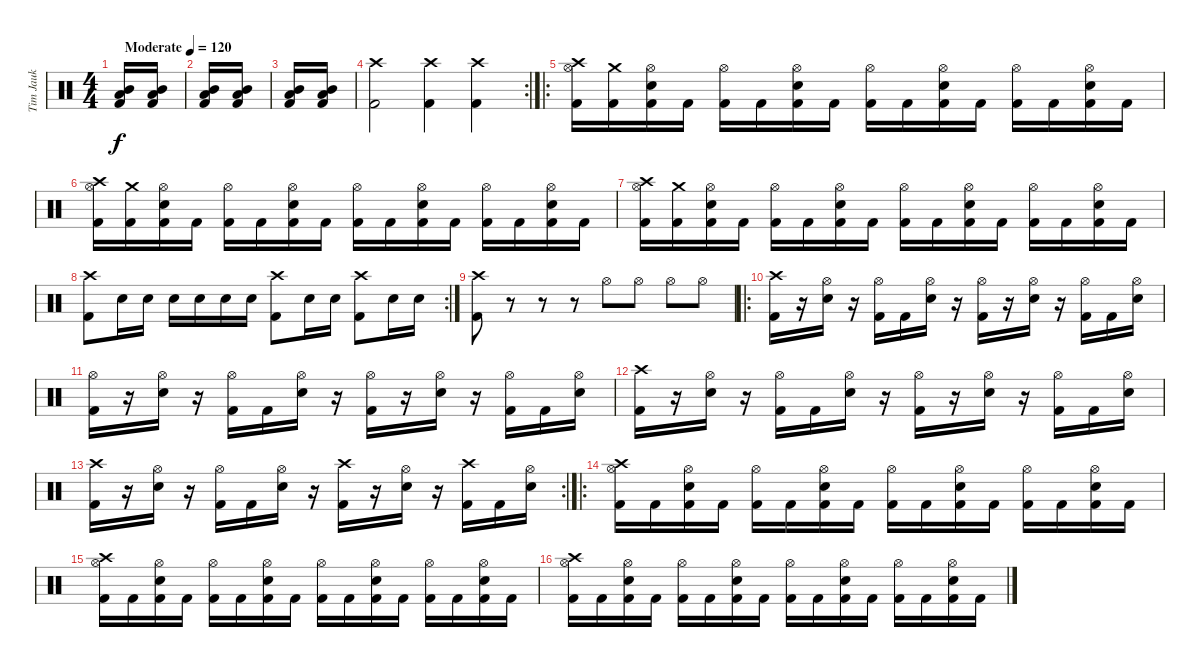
\track ("Tim Jauk" "Tim Jauk") {instrument percussion}
\staff {score}
\articulation defaults
\ts (4 4)
\tempo (120 "Moderate")
\clef neutral
\ks c
("Low Tom (hit)" "Mid Tom (hit)" "Kick (hit) 2").16{dy f} ("Low Tom (hit)" "Mid Tom (hit)" "Kick (hit) 2").16 |
("Low Tom (hit)" "Mid Tom (hit)" "Kick (hit) 2").16 ("Low Tom (hit)" "Mid Tom (hit)" "Kick (hit) 2").16 |
("Low Tom (hit)" "Mid Tom (hit)" "Kick (hit) 2").16 ("Low Tom (hit)" "Mid Tom (hit)" "Kick (hit) 2").16 |
\rc 2
("Crash high (hit)" "Kick (hit) 2").2 ("Crash high (hit)" "Kick (hit) 2").4 ("Crash high (hit)" "Kick (hit) 2").4 |
\ro
("Crash high (hit)" "Hi-Hat (open)" "Kick (hit) 2").16 ("Crash medium (hit)" "Kick (hit) 2").16 ("Hi-Hat (open)" "Snare (hit) 2" "Kick (hit) 2").16 "Kick (hit) 2".16 ("Hi-Hat (open)" "Kick (hit) 2").16 "Kick (hit) 2".16 ("Hi-Hat (open)" "Snare (hit) 2" "Kick (hit) 2").16 "Kick (hit) 2".16 ("Hi-Hat (open)" "Kick (hit) 2").16 "Kick (hit) 2".16 ("Hi-Hat (open)" "Snare (hit) 2" "Kick (hit) 2").16 "Kick (hit) 2".16 ("Hi-Hat (open)" "Kick (hit) 2").16 "Kick (hit) 2".16 ("Hi-Hat (open)" "Snare (hit) 2" "Kick (hit) 2").16 "Kick (hit) 2".16 |
("Crash high (hit)" "Hi-Hat (open)" "Kick (hit) 2").16 ("Crash medium (hit)" "Kick (hit) 2").16 ("Hi-Hat (open)" "Snare (hit) 2" "Kick (hit) 2").16 "Kick (hit) 2".16 ("Hi-Hat (open)" "Kick (hit) 2").16 "Kick (hit) 2".16 ("Hi-Hat (open)" "Snare (hit) 2" "Kick (hit) 2").16 "Kick (hit) 2".16 ("Hi-Hat (open)" "Kick (hit) 2").16 "Kick (hit) 2".16 ("Hi-Hat (open)" "Snare (hit) 2" "Kick (hit) 2").16 "Kick (hit) 2".16 ("Hi-Hat (open)" "Kick (hit) 2").16 "Kick (hit) 2".16 ("Hi-Hat (open)" "Snare (hit) 2" "Kick (hit) 2").16 "Kick (hit) 2".16 |
("Crash high (hit)" "Hi-Hat (open)" "Kick (hit) 2").16 ("Crash medium (hit)" "Kick (hit) 2").16 ("Hi-Hat (open)" "Snare (hit) 2" "Kick (hit) 2").16 "Kick (hit) 2".16 ("Hi-Hat (open)" "Kick (hit) 2").16 "Kick (hit) 2".16 ("Hi-Hat (open)" "Snare (hit) 2" "Kick (hit) 2").16 "Kick (hit) 2".16 ("Hi-Hat (open)" "Kick (hit) 2").16 "Kick (hit) 2".16 ("Hi-Hat (open)" "Snare (hit) 2" "Kick (hit) 2").16 "Kick (hit) 2".16 ("Hi-Hat (open)" "Kick (hit) 2").16 "Kick (hit) 2".16 ("Hi-Hat (open)" "Snare (hit) 2" "Kick (hit) 2").16 "Kick (hit) 2".16 |
\rc 2
("Crash high (hit)" "Kick (hit) 2").8 "Snare (hit) 2".16 "Snare (hit) 2".16 "Snare (hit) 2".16 "Snare (hit) 2".16 "Snare (hit) 2".16 "Snare (hit) 2".16 ("Crash high (hit)" "Kick (hit) 2").8 "Snare (hit) 2".16 "Snare (hit) 2".16 ("Crash high (hit)" "Kick (hit) 2").8 "Snare (hit) 2".16 "Snare (hit) 2".16 |
("Crash high (hit)" "Kick (hit) 2").8 r.8 r.8 r.8 "Hi-Hat (open)".8 "Hi-Hat (open)".8 "Hi-Hat (open)".8 "Hi-Hat (open)".8 |
\ro
("Crash high (hit)" "Kick (hit) 2").16 r.16 ("Hi-Hat (open)" "Snare (hit) 2").16 r.16 ("Hi-Hat (open)" "Kick (hit) 2").16 "Kick (hit) 2".16 ("Hi-Hat (open)" "Snare (hit) 2").16 r.16 ("Hi-Hat (open)" "Kick (hit) 2").16 r.16 ("Hi-Hat (open)" "Snare (hit) 2").16 r.16 ("Hi-Hat (open)" "Kick (hit) 2").16 "Kick (hit) 2".16 ("Hi-Hat (open)" "Snare (hit) 2").16 |
("Hi-Hat (open)" "Kick (hit) 2").16 r.16 ("Hi-Hat (open)" "Snare (hit) 2").16 r.16 ("Hi-Hat (open)" "Kick (hit) 2").16 "Kick (hit) 2".16 ("Hi-Hat (open)" "Snare (hit) 2").16 r.16 ("Hi-Hat (open)" "Kick (hit) 2").16 r.16 ("Hi-Hat (open)" "Snare (hit) 2").16 r.16 ("Hi-Hat (open)" "Kick (hit) 2").16 "Kick (hit) 2".16 ("Hi-Hat (open)" "Snare (hit) 2").16 |
("Crash high (hit)" "Kick (hit) 2").16 r.16 ("Hi-Hat (open)" "Snare (hit) 2").16 r.16 ("Hi-Hat (open)" "Kick (hit) 2").16 "Kick (hit) 2".16 ("Hi-Hat (open)" "Snare (hit) 2").16 r.16 ("Hi-Hat (open)" "Kick (hit) 2").16 r.16 ("Hi-Hat (open)" "Snare (hit) 2").16 r.16 ("Hi-Hat (open)" "Kick (hit) 2").16 "Kick (hit) 2".16 ("Hi-Hat (open)" "Snare (hit) 2").16 |
\rc 2
("Crash high (hit)" "Kick (hit) 2").16 r.16 ("Hi-Hat (open)" "Snare (hit) 2").16 r.16 ("Hi-Hat (open)" "Kick (hit) 2").16 "Kick (hit) 2".16 ("Hi-Hat (open)" "Snare (hit) 2").16 r.16 ("Crash high (hit)" "Kick (hit) 2").16 r.16 ("Hi-Hat (open)" "Snare (hit) 2").16 r.16 ("Crash high (hit)" "Kick (hit) 2").16 "Kick (hit) 2".16 ("Hi-Hat (open)" "Snare (hit) 2").16 |
\ro
("Crash high (hit)" "Hi-Hat (open)" "Kick (hit) 2").16 "Kick (hit) 2".16 ("Hi-Hat (open)" "Snare (hit) 2" "Kick (hit) 2").16 "Kick (hit) 2".16 ("Hi-Hat (open)" "Kick (hit) 2").16 "Kick (hit) 2".16 ("Hi-Hat (open)" "Snare (hit) 2" "Kick (hit) 2").16 "Kick (hit) 2".16 ("Hi-Hat (open)" "Kick (hit) 2").16 "Kick (hit) 2".16 ("Hi-Hat (open)" "Snare (hit) 2" "Kick (hit) 2").16 "Kick (hit) 2".16 ("Hi-Hat (open)" "Kick (hit) 2").16 "Kick (hit) 2".16 ("Hi-Hat (open)" "Snare (hit) 2" "Kick (hit) 2").16 "Kick (hit) 2".16 |
("Crash high (hit)" "Hi-Hat (open)" "Kick (hit) 2").16 "Kick (hit) 2".16 ("Hi-Hat (open)" "Snare (hit) 2" "Kick (hit) 2").16 "Kick (hit) 2".16 ("Hi-Hat (open)" "Kick (hit) 2").16 "Kick (hit) 2".16 ("Hi-Hat (open)" "Snare (hit) 2" "Kick (hit) 2").16 "Kick (hit) 2".16 ("Hi-Hat (open)" "Kick (hit) 2").16 "Kick (hit) 2".16 ("Hi-Hat (open)" "Snare (hit) 2" "Kick (hit) 2").16 "Kick (hit) 2".16 ("Hi-Hat (open)" "Kick (hit) 2").16 "Kick (hit) 2".16 ("Hi-Hat (open)" "Snare (hit) 2" "Kick (hit) 2").16 "Kick (hit) 2".16 |
("Crash high (hit)" "Hi-Hat (open)" "Kick (hit) 2").16 "Kick (hit) 2".16 ("Hi-Hat (open)" "Snare (hit) 2" "Kick (hit) 2").16 "Kick (hit) 2".16 ("Hi-Hat (open)" "Kick (hit) 2").16 "Kick (hit) 2".16 ("Hi-Hat (open)" "Snare (hit) 2" "Kick (hit) 2").16 "Kick (hit) 2".16 ("Hi-Hat (open)" "Kick (hit) 2").16 "Kick (hit) 2".16 ("Hi-Hat (open)" "Snare (hit) 2" "Kick (hit) 2").16 "Kick (hit) 2".16 ("Hi-Hat (open)" "Kick (hit) 2").16 "Kick (hit) 2".16 ("Hi-Hat (open)" "Snare (hit) 2" "Kick (hit) 2").16 "Kick (hit) 2".16
